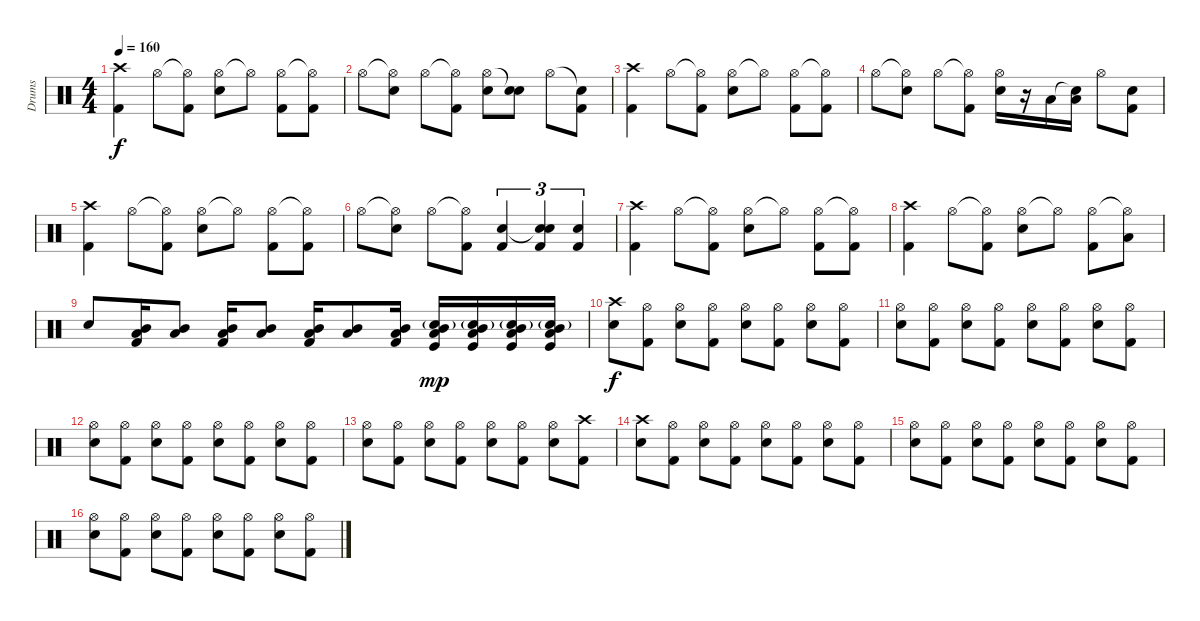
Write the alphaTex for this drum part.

\track ("Drums" "Drums") {instrument percussion}
\staff {score}
\articulation defaults
\ts (4 4)
\tempo 160
\clef neutral
\ks c
("Crash high (hit)" "Kick (hit) 2").4{dy f} "Hi-Hat (open)".8 ("Hi-Hat (open)"{t} "Kick (hit) 2").8 ("Hi-Hat (open)" "Snare (hit) 2").8 "Hi-Hat (open)"{t}.8 ("Hi-Hat (open)" "Kick (hit) 2").8 ("Hi-Hat (open)"{t} "Kick (hit) 2").8 |
"Hi-Hat (open)".8 ("Hi-Hat (open)"{t} "Snare (hit) 2").8 "Hi-Hat (open)".8 ("Hi-Hat (open)"{t} "Kick (hit) 2").8 ("Hi-Hat (open)" "Snare (hit) 2").8 ("Snare (hit)"{t} "Snare (hit) 2").8 "Hi-Hat (open)".8 ("Snare (hit)"{t} "Kick (hit) 2").8 |
("Crash high (hit)" "Kick (hit) 2").4 "Hi-Hat (open)".8 ("Hi-Hat (open)"{t} "Kick (hit) 2").8 ("Hi-Hat (open)" "Snare (hit) 2").8 "Hi-Hat (open)"{t}.8 ("Hi-Hat (open)" "Kick (hit) 2").8 ("Hi-Hat (open)"{t} "Kick (hit) 2").8 |
"Hi-Hat (open)".8 ("Hi-Hat (open)"{t} "Snare (hit) 2").8 "Hi-Hat (open)".8 ("Hi-Hat (open)"{t} "Kick (hit) 2").8 ("Hi-Hat (open)" "Snare (hit) 2").16 r.16 "Low Tom (hit)".16 ("Snare (hit)"{t} "Low Floor Tom (hit)").16 "Hi-Hat (open)".8 ("Snare (hit) 2" "Kick (hit) 2").8 |
("Crash high (hit)" "Kick (hit) 2").4 "Hi-Hat (open)".8 ("Hi-Hat (open)"{t} "Kick (hit) 2").8 ("Hi-Hat (open)" "Snare (hit) 2").8 "Hi-Hat (open)"{t}.8 ("Hi-Hat (open)" "Kick (hit) 2").8 ("Hi-Hat (open)"{t} "Kick (hit) 2").8 |
"Hi-Hat (open)".8 ("Hi-Hat (open)"{t} "Snare (hit) 2").8 "Hi-Hat (open)".8 ("Hi-Hat (open)"{t} "Kick (hit) 2").8 ("Snare (hit) 2" "Kick (hit) 2").4{tu (3 2)} ("Snare (hit)"{t} "Snare (hit) 2" "Kick (hit) 2").4{tu (3 2)} ("Snare (hit) 2" "Kick (hit) 2").4{tu (3 2)} |
("Crash high (hit)" "Kick (hit) 2").4 "Hi-Hat (open)".8 ("Hi-Hat (open)"{t} "Kick (hit) 2").8 ("Hi-Hat (open)" "Snare (hit) 2").8 "Hi-Hat (open)"{t}.8 ("Hi-Hat (open)" "Kick (hit) 2").8 ("Hi-Hat (open)"{t} "Kick (hit) 2").8 |
("Crash high (hit)" "Kick (hit) 2").4 "Hi-Hat (open)".8 ("Hi-Hat (open)"{t} "Kick (hit) 2").8 ("Hi-Hat (open)" "Snare (hit) 2").8 "Hi-Hat (open)"{t}.8 ("Hi-Hat (open)" "Kick (hit) 2").8 ("Hi-Hat (open)"{t} "Low Tom (hit)").8 |
"Snare (hit) 2".8 ("Mid Tom (hit)" "Low Tom (hit)" "Kick (hit) 2").16{volume 5} ("Mid Tom (hit)" "Low Tom (hit)").8{volume 6} ("Mid Tom (hit)" "Low Tom (hit)" "Kick (hit) 2").16{volume 7} ("Mid Tom (hit)" "Low Tom (hit)").8{volume 8} ("Mid Tom (hit)" "Low Tom (hit)" "Kick (hit) 2").16{volume 9} ("Mid Tom (hit)" "Low Tom (hit)").8{volume 11} ("Mid Tom (hit)" "Low Tom (hit)" "Kick (hit) 2").16{volume 12} ("Mid Tom (hit)" "Snare (hit) 2"{g} "Low Tom (hit)" "Kick (hit)").16{dy mp volume 14} ("Mid Tom (hit)" "Snare (hit) 2"{g} "Low Tom (hit)" "Kick (hit)").16{volume 14} ("Mid Tom (hit)" "Snare (hit) 2"{g} "Low Tom (hit)" "Kick (hit)").16{volume 14} ("Mid Tom (hit)" "Snare (hit) 2"{g} "Low Tom (hit)" "Kick (hit)").16{volume 14} |
("Crash high (hit)" "Snare (hit) 2").8{dy f} ("Hi-Hat (open)" "Kick (hit) 2").8 ("Hi-Hat (open)" "Snare (hit) 2").8 ("Hi-Hat (open)" "Kick (hit) 2").8 ("Hi-Hat (open)" "Snare (hit) 2").8 ("Hi-Hat (open)" "Kick (hit) 2").8 ("Hi-Hat (open)" "Snare (hit) 2").8 ("Hi-Hat (open)" "Kick (hit) 2").8 |
("Hi-Hat (open)" "Snare (hit) 2").8 ("Hi-Hat (open)" "Kick (hit) 2").8 ("Hi-Hat (open)" "Snare (hit) 2").8 ("Hi-Hat (open)" "Kick (hit) 2").8 ("Hi-Hat (open)" "Snare (hit) 2").8 ("Hi-Hat (open)" "Kick (hit) 2").8 ("Hi-Hat (open)" "Snare (hit) 2").8 ("Hi-Hat (open)" "Kick (hit) 2").8 |
("Hi-Hat (open)" "Snare (hit) 2").8 ("Hi-Hat (open)" "Kick (hit) 2").8 ("Hi-Hat (open)" "Snare (hit) 2").8 ("Hi-Hat (open)" "Kick (hit) 2").8 ("Hi-Hat (open)" "Snare (hit) 2").8 ("Hi-Hat (open)" "Kick (hit) 2").8 ("Hi-Hat (open)" "Snare (hit) 2").8 ("Hi-Hat (open)" "Kick (hit) 2").8 |
("Hi-Hat (open)" "Snare (hit) 2").8 ("Hi-Hat (open)" "Kick (hit) 2").8 ("Hi-Hat (open)" "Snare (hit) 2").8 ("Hi-Hat (open)" "Kick (hit) 2").8 ("Hi-Hat (open)" "Snare (hit) 2").8 ("Hi-Hat (open)" "Kick (hit) 2").8 ("Hi-Hat (open)" "Snare (hit) 2").8 ("Crash high (hit)" "Kick (hit) 2").8 |
("Crash high (hit)" "Snare (hit) 2").8 ("Hi-Hat (open)" "Kick (hit) 2").8 ("Hi-Hat (open)" "Snare (hit) 2").8 ("Hi-Hat (open)" "Kick (hit) 2").8 ("Hi-Hat (open)" "Snare (hit) 2").8 ("Hi-Hat (open)" "Kick (hit) 2").8 ("Hi-Hat (open)" "Snare (hit) 2").8 ("Hi-Hat (open)" "Kick (hit) 2").8 |
("Hi-Hat (open)" "Snare (hit) 2").8 ("Hi-Hat (open)" "Kick (hit) 2").8 ("Hi-Hat (open)" "Snare (hit) 2").8 ("Hi-Hat (open)" "Kick (hit) 2").8 ("Hi-Hat (open)" "Snare (hit) 2").8 ("Hi-Hat (open)" "Kick (hit) 2").8 ("Hi-Hat (open)" "Snare (hit) 2").8 ("Hi-Hat (open)" "Kick (hit) 2").8 |
("Hi-Hat (open)" "Snare (hit) 2").8 ("Hi-Hat (open)" "Kick (hit) 2").8 ("Hi-Hat (open)" "Snare (hit) 2").8 ("Hi-Hat (open)" "Kick (hit) 2").8 ("Hi-Hat (open)" "Snare (hit) 2").8 ("Hi-Hat (open)" "Kick (hit) 2").8 ("Hi-Hat (open)" "Snare (hit) 2").8 ("Hi-Hat (open)" "Kick (hit) 2").8
